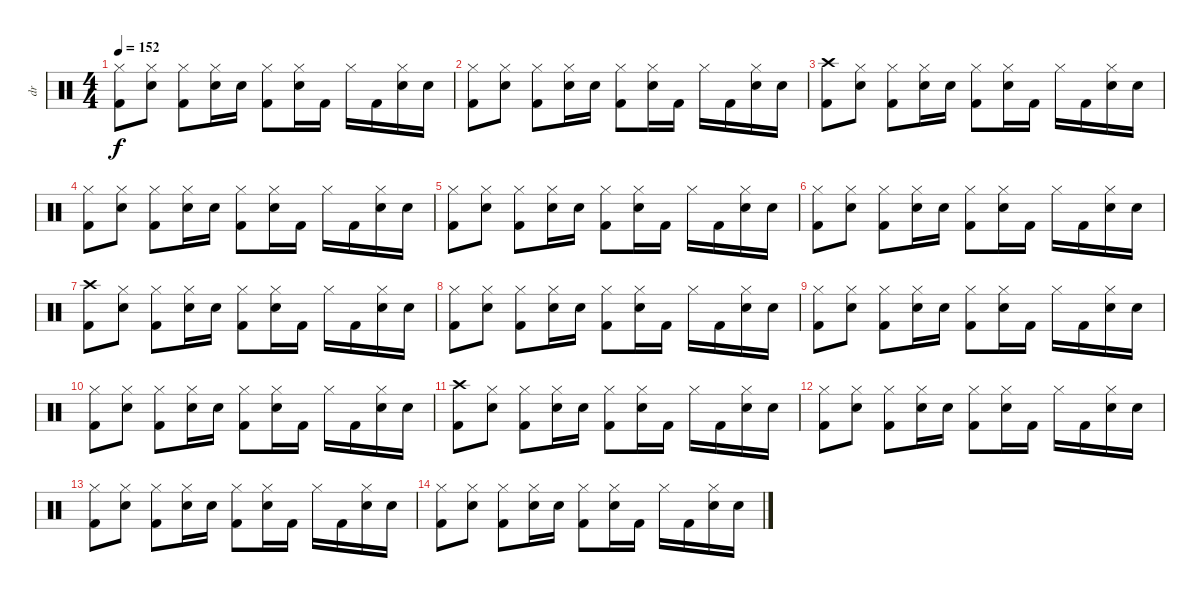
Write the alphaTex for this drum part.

\track ("dr" "dr") {instrument percussion}
\staff {score}
\articulation defaults
\ts (4 4)
\tempo 152
\clef neutral
\ks c
("Hi-Hat (closed)" "Kick (hit) 2").8{dy f} ("Hi-Hat (closed)" "Electric Snare (hit)").8 ("Hi-Hat (closed)" "Kick (hit) 2").8 ("Hi-Hat (closed)" "Electric Snare (hit)").16 "Electric Snare (hit)".16 ("Hi-Hat (closed)" "Kick (hit) 2").8 ("Hi-Hat (closed)" "Electric Snare (hit)").16 "Kick (hit) 2".16 "Hi-Hat (closed)".16 "Kick (hit) 2".16 ("Hi-Hat (closed)" "Electric Snare (hit)").16 "Electric Snare (hit)".16 |
("Hi-Hat (closed)" "Kick (hit) 2").8 ("Hi-Hat (closed)" "Electric Snare (hit)").8 ("Hi-Hat (closed)" "Kick (hit) 2").8 ("Hi-Hat (closed)" "Electric Snare (hit)").16 "Electric Snare (hit)".16 ("Hi-Hat (closed)" "Kick (hit) 2").8 ("Hi-Hat (closed)" "Electric Snare (hit)").16 "Kick (hit) 2".16 "Hi-Hat (closed)".16 "Kick (hit) 2".16 ("Hi-Hat (closed)" "Electric Snare (hit)").16 "Electric Snare (hit)".16 |
("Crash high (hit)" "Kick (hit) 2").8 ("Hi-Hat (closed)" "Electric Snare (hit)").8 ("Hi-Hat (closed)" "Kick (hit) 2").8 ("Hi-Hat (closed)" "Electric Snare (hit)").16 "Electric Snare (hit)".16 ("Hi-Hat (closed)" "Kick (hit) 2").8 ("Hi-Hat (closed)" "Electric Snare (hit)").16 "Kick (hit) 2".16 "Hi-Hat (closed)".16 "Kick (hit) 2".16 ("Hi-Hat (closed)" "Electric Snare (hit)").16 "Electric Snare (hit)".16 |
("Hi-Hat (closed)" "Kick (hit) 2").8 ("Hi-Hat (closed)" "Electric Snare (hit)").8 ("Hi-Hat (closed)" "Kick (hit) 2").8 ("Hi-Hat (closed)" "Electric Snare (hit)").16 "Electric Snare (hit)".16 ("Hi-Hat (closed)" "Kick (hit) 2").8 ("Hi-Hat (closed)" "Electric Snare (hit)").16 "Kick (hit) 2".16 "Hi-Hat (closed)".16 "Kick (hit) 2".16 ("Hi-Hat (closed)" "Electric Snare (hit)").16 "Electric Snare (hit)".16 |
("Hi-Hat (closed)" "Kick (hit) 2").8 ("Hi-Hat (closed)" "Electric Snare (hit)").8 ("Hi-Hat (closed)" "Kick (hit) 2").8 ("Hi-Hat (closed)" "Electric Snare (hit)").16 "Electric Snare (hit)".16 ("Hi-Hat (closed)" "Kick (hit) 2").8 ("Hi-Hat (closed)" "Electric Snare (hit)").16 "Kick (hit) 2".16 "Hi-Hat (closed)".16 "Kick (hit) 2".16 ("Hi-Hat (closed)" "Electric Snare (hit)").16 "Electric Snare (hit)".16 |
("Hi-Hat (closed)" "Kick (hit) 2").8 ("Hi-Hat (closed)" "Electric Snare (hit)").8 ("Hi-Hat (closed)" "Kick (hit) 2").8 ("Hi-Hat (closed)" "Electric Snare (hit)").16 "Electric Snare (hit)".16 ("Hi-Hat (closed)" "Kick (hit) 2").8 ("Hi-Hat (closed)" "Electric Snare (hit)").16 "Kick (hit) 2".16 "Hi-Hat (closed)".16 "Kick (hit) 2".16 ("Hi-Hat (closed)" "Electric Snare (hit)").16 "Electric Snare (hit)".16 |
("Crash high (hit)" "Kick (hit) 2").8 ("Hi-Hat (closed)" "Electric Snare (hit)").8 ("Hi-Hat (closed)" "Kick (hit) 2").8 ("Hi-Hat (closed)" "Electric Snare (hit)").16 "Electric Snare (hit)".16 ("Hi-Hat (closed)" "Kick (hit) 2").8 ("Hi-Hat (closed)" "Electric Snare (hit)").16 "Kick (hit) 2".16 "Hi-Hat (closed)".16 "Kick (hit) 2".16 ("Hi-Hat (closed)" "Electric Snare (hit)").16 "Electric Snare (hit)".16 |
("Hi-Hat (closed)" "Kick (hit) 2").8 ("Hi-Hat (closed)" "Electric Snare (hit)").8 ("Hi-Hat (closed)" "Kick (hit) 2").8 ("Hi-Hat (closed)" "Electric Snare (hit)").16 "Electric Snare (hit)".16 ("Hi-Hat (closed)" "Kick (hit) 2").8 ("Hi-Hat (closed)" "Electric Snare (hit)").16 "Kick (hit) 2".16 "Hi-Hat (closed)".16 "Kick (hit) 2".16 ("Hi-Hat (closed)" "Electric Snare (hit)").16 "Electric Snare (hit)".16 |
("Hi-Hat (closed)" "Kick (hit) 2").8 ("Hi-Hat (closed)" "Electric Snare (hit)").8 ("Hi-Hat (closed)" "Kick (hit) 2").8 ("Hi-Hat (closed)" "Electric Snare (hit)").16 "Electric Snare (hit)".16 ("Hi-Hat (closed)" "Kick (hit) 2").8 ("Hi-Hat (closed)" "Electric Snare (hit)").16 "Kick (hit) 2".16 "Hi-Hat (closed)".16 "Kick (hit) 2".16 ("Hi-Hat (closed)" "Electric Snare (hit)").16 "Electric Snare (hit)".16 |
("Hi-Hat (closed)" "Kick (hit) 2").8 ("Hi-Hat (closed)" "Electric Snare (hit)").8 ("Hi-Hat (closed)" "Kick (hit) 2").8 ("Hi-Hat (closed)" "Electric Snare (hit)").16 "Electric Snare (hit)".16 ("Hi-Hat (closed)" "Kick (hit) 2").8 ("Hi-Hat (closed)" "Electric Snare (hit)").16 "Kick (hit) 2".16 "Hi-Hat (closed)".16 "Kick (hit) 2".16 ("Hi-Hat (closed)" "Electric Snare (hit)").16 "Electric Snare (hit)".16 |
("Crash high (hit)" "Kick (hit) 2").8 ("Hi-Hat (closed)" "Electric Snare (hit)").8 ("Hi-Hat (closed)" "Kick (hit) 2").8 ("Hi-Hat (closed)" "Electric Snare (hit)").16 "Electric Snare (hit)".16 ("Hi-Hat (closed)" "Kick (hit) 2").8 ("Hi-Hat (closed)" "Electric Snare (hit)").16 "Kick (hit) 2".16 "Hi-Hat (closed)".16 "Kick (hit) 2".16 ("Hi-Hat (closed)" "Electric Snare (hit)").16 "Electric Snare (hit)".16 |
("Hi-Hat (closed)" "Kick (hit) 2").8 ("Hi-Hat (closed)" "Electric Snare (hit)").8 ("Hi-Hat (closed)" "Kick (hit) 2").8 ("Hi-Hat (closed)" "Electric Snare (hit)").16 "Electric Snare (hit)".16 ("Hi-Hat (closed)" "Kick (hit) 2").8 ("Hi-Hat (closed)" "Electric Snare (hit)").16 "Kick (hit) 2".16 "Hi-Hat (closed)".16 "Kick (hit) 2".16 ("Hi-Hat (closed)" "Electric Snare (hit)").16 "Electric Snare (hit)".16 |
("Hi-Hat (closed)" "Kick (hit) 2").8 ("Hi-Hat (closed)" "Electric Snare (hit)").8 ("Hi-Hat (closed)" "Kick (hit) 2").8 ("Hi-Hat (closed)" "Electric Snare (hit)").16 "Electric Snare (hit)".16 ("Hi-Hat (closed)" "Kick (hit) 2").8 ("Hi-Hat (closed)" "Electric Snare (hit)").16 "Kick (hit) 2".16 "Hi-Hat (closed)".16 "Kick (hit) 2".16 ("Hi-Hat (closed)" "Electric Snare (hit)").16 "Electric Snare (hit)".16 |
("Hi-Hat (closed)" "Kick (hit) 2").8 ("Hi-Hat (closed)" "Electric Snare (hit)").8 ("Hi-Hat (closed)" "Kick (hit) 2").8 ("Hi-Hat (closed)" "Electric Snare (hit)").16 "Electric Snare (hit)".16 ("Hi-Hat (closed)" "Kick (hit) 2").8 ("Hi-Hat (closed)" "Electric Snare (hit)").16 "Kick (hit) 2".16 "Hi-Hat (closed)".16 "Kick (hit) 2".16 ("Hi-Hat (closed)" "Electric Snare (hit)").16 "Electric Snare (hit)".16
